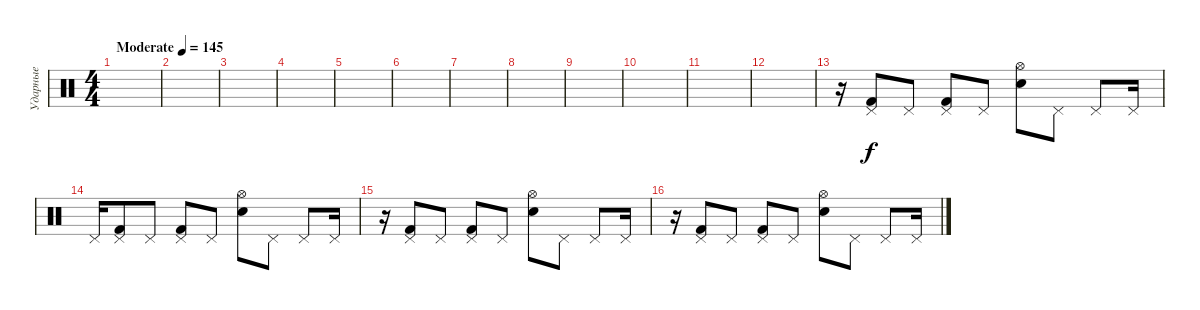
\track ("Ударные" "Ударные") {instrument percussion}
\staff {score}
\articulation defaults
\ts (4 4)
\tempo (145 "Moderate")
\clef neutral
\ks c
|
|
|
|
|
|
|
|
|
|
|
|
r.16 ("Pedal Hi-Hat (hit)" "Kick (hit) 2").8 "Pedal Hi-Hat (hit)".8 ("Pedal Hi-Hat (hit)" "Kick (hit) 2").8 "Pedal Hi-Hat (hit)".8 ("Hi-Hat (open)" "Electric Snare (hit)").8 "Pedal Hi-Hat (hit)".8 "Pedal Hi-Hat (hit)".8 "Pedal Hi-Hat (hit)".16 |
"Pedal Hi-Hat (hit)".16 ("Pedal Hi-Hat (hit)" "Kick (hit) 2").8 "Pedal Hi-Hat (hit)".8 ("Pedal Hi-Hat (hit)" "Kick (hit) 2").8 "Pedal Hi-Hat (hit)".8 ("Hi-Hat (open)" "Electric Snare (hit)").8 "Pedal Hi-Hat (hit)".8 "Pedal Hi-Hat (hit)".8 "Pedal Hi-Hat (hit)".16 |
r.16 ("Pedal Hi-Hat (hit)" "Kick (hit) 2").8 "Pedal Hi-Hat (hit)".8 ("Pedal Hi-Hat (hit)" "Kick (hit) 2").8 "Pedal Hi-Hat (hit)".8 ("Hi-Hat (open)" "Electric Snare (hit)").8 "Pedal Hi-Hat (hit)".8 "Pedal Hi-Hat (hit)".8 "Pedal Hi-Hat (hit)".16 |
r.16 ("Pedal Hi-Hat (hit)" "Kick (hit) 2").8 "Pedal Hi-Hat (hit)".8 ("Pedal Hi-Hat (hit)" "Kick (hit) 2").8 "Pedal Hi-Hat (hit)".8 ("Hi-Hat (open)" "Electric Snare (hit)").8 "Pedal Hi-Hat (hit)".8 "Pedal Hi-Hat (hit)".8 "Pedal Hi-Hat (hit)".16
